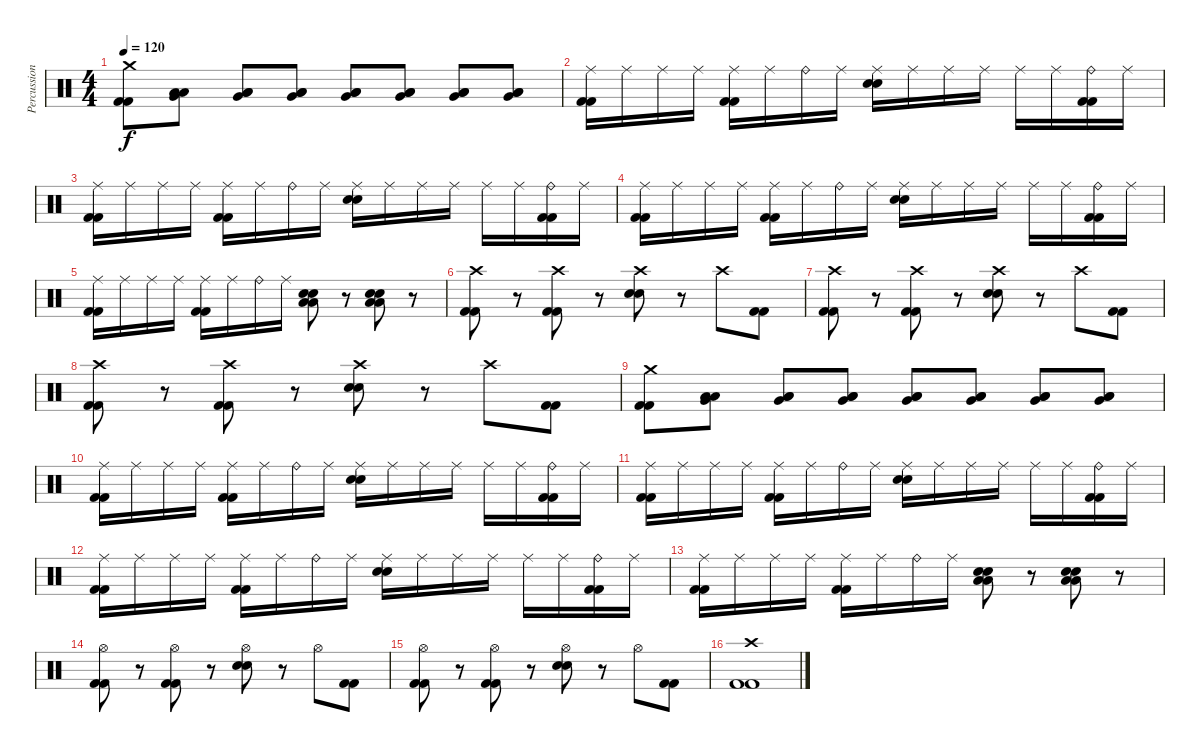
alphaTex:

\track ("Percussion" "Percussion") {instrument percussion}
\staff {score}
\articulation defaults
\ts (4 4)
\tempo 120
\clef neutral
\ks c
("Crash medium (hit)" "Kick (hit) 2" "Kick (hit) 2").8{dy f} ("Very Low Tom (hit)" "Low Floor Tom (hit)" "Low Floor Tom (hit)").8 ("Very Low Tom (hit)" "Low Floor Tom (hit)" "Low Floor Tom (hit)").8 ("Very Low Tom (hit)" "Low Floor Tom (hit)" "Low Floor Tom (hit)").8 ("Very Low Tom (hit)" "Low Floor Tom (hit)" "Low Floor Tom (hit)").8 ("Very Low Tom (hit)" "Low Floor Tom (hit)" "Low Floor Tom (hit)").8 ("Very Low Tom (hit)" "Low Floor Tom (hit)" "Low Floor Tom (hit)").8 ("Very Low Tom (hit)" "Low Floor Tom (hit)" "Low Floor Tom (hit)").8 |
("Ride (middle)" "Kick (hit) 2" "Kick (hit) 2").16 "Ride (middle)".16 "Ride (middle)".16 "Ride (middle)".16 ("Ride (middle)" "Kick (hit) 2" "Kick (hit) 2").16 "Ride (middle)".16 "Ride (bell)".16 "Ride (middle)".16 ("Ride (middle)" "Snare (hit) 2" "Snare (hit) 2").16 "Ride (middle)".16 "Ride (middle)".16 "Ride (middle)".16 "Ride (middle)".16 "Ride (middle)".16 ("Ride (bell)" "Kick (hit) 2" "Kick (hit) 2").16 "Ride (middle)".16 |
("Ride (middle)" "Kick (hit) 2" "Kick (hit) 2").16 "Ride (middle)".16 "Ride (middle)".16 "Ride (middle)".16 ("Ride (middle)" "Kick (hit) 2" "Kick (hit) 2").16 "Ride (middle)".16 "Ride (bell)".16 "Ride (middle)".16 ("Ride (middle)" "Snare (hit) 2" "Snare (hit) 2").16 "Ride (middle)".16 "Ride (middle)".16 "Ride (middle)".16 "Ride (middle)".16 "Ride (middle)".16 ("Ride (bell)" "Kick (hit) 2" "Kick (hit) 2").16 "Ride (middle)".16 |
("Ride (middle)" "Kick (hit) 2" "Kick (hit) 2").16 "Ride (middle)".16 "Ride (middle)".16 "Ride (middle)".16 ("Ride (middle)" "Kick (hit) 2" "Kick (hit) 2").16 "Ride (middle)".16 "Ride (bell)".16 "Ride (middle)".16 ("Ride (middle)" "Snare (hit) 2" "Snare (hit) 2").16 "Ride (middle)".16 "Ride (middle)".16 "Ride (middle)".16 "Ride (middle)".16 "Ride (middle)".16 ("Ride (bell)" "Kick (hit) 2" "Kick (hit) 2").16 "Ride (middle)".16 |
("Ride (middle)" "Kick (hit) 2" "Kick (hit) 2").16 "Ride (middle)".16 "Ride (middle)".16 "Ride (middle)".16 ("Ride (middle)" "Kick (hit) 2" "Kick (hit) 2").16 "Ride (middle)".16 "Ride (bell)".16 "Ride (middle)".16 ("Low Floor Tom (hit)" "Low Floor Tom (hit)" "Snare (hit) 2" "Snare (hit) 2").8 r.8 ("Low Floor Tom (hit)" "Low Floor Tom (hit)" "Snare (hit) 2" "Snare (hit) 2").8 r.8 |
("Crash high (hit)" "Kick (hit) 2" "Kick (hit) 2").8 r.8 ("Crash high (hit)" "Kick (hit) 2" "Kick (hit) 2").8 r.8 ("Crash high (hit)" "Snare (hit) 2" "Snare (hit) 2").8 r.8 "Crash high (hit)".8 ("Kick (hit) 2" "Kick (hit) 2").8 |
("Crash high (hit)" "Kick (hit) 2" "Kick (hit) 2").8 r.8 ("Crash high (hit)" "Kick (hit) 2" "Kick (hit) 2").8 r.8 ("Crash high (hit)" "Snare (hit) 2" "Snare (hit) 2").8 r.8 "Crash high (hit)".8 ("Kick (hit) 2" "Kick (hit) 2").8 |
("Crash high (hit)" "Kick (hit) 2" "Kick (hit) 2").8 r.8 ("Crash high (hit)" "Kick (hit) 2" "Kick (hit) 2").8 r.8 ("Crash high (hit)" "Snare (hit) 2" "Snare (hit) 2").8 r.8 "Crash high (hit)".8 ("Kick (hit) 2" "Kick (hit) 2").8 |
("Crash medium (hit)" "Kick (hit) 2" "Kick (hit) 2").8 ("Very Low Tom (hit)" "Low Floor Tom (hit)" "Low Floor Tom (hit)").8 ("Very Low Tom (hit)" "Low Floor Tom (hit)" "Low Floor Tom (hit)").8 ("Very Low Tom (hit)" "Low Floor Tom (hit)" "Low Floor Tom (hit)").8 ("Very Low Tom (hit)" "Low Floor Tom (hit)" "Low Floor Tom (hit)").8 ("Very Low Tom (hit)" "Low Floor Tom (hit)" "Low Floor Tom (hit)").8 ("Very Low Tom (hit)" "Low Floor Tom (hit)" "Low Floor Tom (hit)").8 ("Very Low Tom (hit)" "Low Floor Tom (hit)" "Low Floor Tom (hit)").8 |
("Ride (middle)" "Kick (hit) 2" "Kick (hit) 2").16 "Ride (middle)".16 "Ride (middle)".16 "Ride (middle)".16 ("Ride (middle)" "Kick (hit) 2" "Kick (hit) 2").16 "Ride (middle)".16 "Ride (bell)".16 "Ride (middle)".16 ("Ride (middle)" "Snare (hit) 2" "Snare (hit) 2").16 "Ride (middle)".16 "Ride (middle)".16 "Ride (middle)".16 "Ride (middle)".16 "Ride (middle)".16 ("Ride (bell)" "Kick (hit) 2" "Kick (hit) 2").16 "Ride (middle)".16 |
("Ride (middle)" "Kick (hit) 2" "Kick (hit) 2").16 "Ride (middle)".16 "Ride (middle)".16 "Ride (middle)".16 ("Ride (middle)" "Kick (hit) 2" "Kick (hit) 2").16 "Ride (middle)".16 "Ride (bell)".16 "Ride (middle)".16 ("Ride (middle)" "Snare (hit) 2" "Snare (hit) 2").16 "Ride (middle)".16 "Ride (middle)".16 "Ride (middle)".16 "Ride (middle)".16 "Ride (middle)".16 ("Ride (bell)" "Kick (hit) 2" "Kick (hit) 2").16 "Ride (middle)".16 |
("Ride (middle)" "Kick (hit) 2" "Kick (hit) 2").16 "Ride (middle)".16 "Ride (middle)".16 "Ride (middle)".16 ("Ride (middle)" "Kick (hit) 2" "Kick (hit) 2").16 "Ride (middle)".16 "Ride (bell)".16 "Ride (middle)".16 ("Ride (middle)" "Snare (hit) 2" "Snare (hit) 2").16 "Ride (middle)".16 "Ride (middle)".16 "Ride (middle)".16 "Ride (middle)".16 "Ride (middle)".16 ("Ride (bell)" "Kick (hit) 2" "Kick (hit) 2").16 "Ride (middle)".16 |
("Ride (middle)" "Kick (hit) 2" "Kick (hit) 2").16 "Ride (middle)".16 "Ride (middle)".16 "Ride (middle)".16 ("Ride (middle)" "Kick (hit) 2" "Kick (hit) 2").16 "Ride (middle)".16 "Ride (bell)".16 "Ride (middle)".16 ("Low Floor Tom (hit)" "Low Floor Tom (hit)" "Snare (hit) 2" "Snare (hit) 2").8 r.8 ("Low Floor Tom (hit)" "Low Floor Tom (hit)" "Snare (hit) 2" "Snare (hit) 2").8 r.8 |
("Hi-Hat (open)" "Kick (hit) 2" "Kick (hit) 2").8 r.8 ("Hi-Hat (open)" "Kick (hit) 2" "Kick (hit) 2").8 r.8 ("Hi-Hat (open)" "Snare (hit) 2" "Snare (hit) 2").8 r.8 "Hi-Hat (open)".8 ("Kick (hit) 2" "Kick (hit) 2").8 |
("Hi-Hat (open)" "Kick (hit) 2" "Kick (hit) 2").8 r.8 ("Hi-Hat (open)" "Kick (hit) 2" "Kick (hit) 2").8 r.8 ("Hi-Hat (open)" "Snare (hit) 2" "Snare (hit) 2").8 r.8 "Hi-Hat (open)".8 ("Kick (hit) 2" "Kick (hit) 2").8 |
("Crash high (hit)" "Kick (hit) 2" "Kick (hit) 2").1
